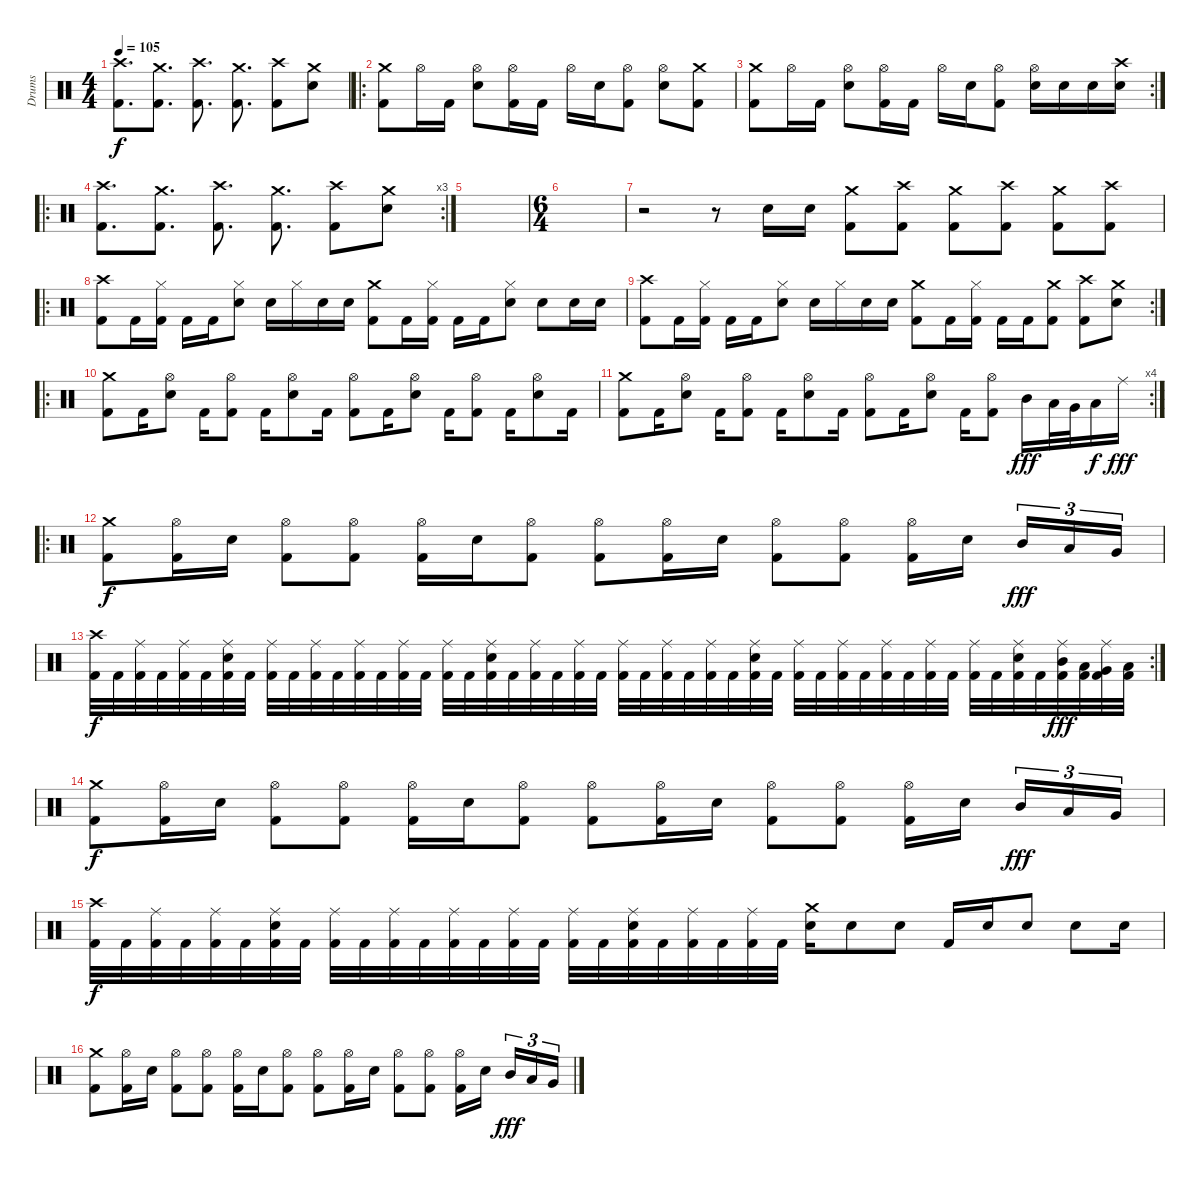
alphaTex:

\track ("Drums" "Drums") {instrument percussion}
\staff {score}
\articulation defaults
\ts (4 4)
\tempo 105
\clef neutral
\ks c
("Crash high (hit)" "Kick (hit) 2").8{d dy f} ("Crash medium (hit)" "Kick (hit) 2").8{d} ("Crash high (hit)" "Kick (hit) 2").8{d} ("Crash medium (hit)" "Kick (hit) 2").8{d} ("Crash high (hit)" "Kick (hit) 2").8 ("Crash medium (hit)" "Electric Snare (hit)").8 |
\ro
("Crash medium (hit)" "Kick (hit) 2").8 "Hi-Hat (open)".16 "Kick (hit) 2".16 ("Hi-Hat (open)" "Electric Snare (hit)").8 ("Hi-Hat (open)" "Kick (hit) 2").16 "Kick (hit) 2".16 "Hi-Hat (open)".16 "Electric Snare (hit)".16 ("Hi-Hat (open)" "Kick (hit) 2").8 ("Hi-Hat (open)" "Electric Snare (hit)").8 ("Crash medium (hit)" "Kick (hit) 2").8 |
\rc 2
("Crash medium (hit)" "Kick (hit) 2").8 "Hi-Hat (open)".16 "Kick (hit) 2".16 ("Hi-Hat (open)" "Electric Snare (hit)").8 ("Hi-Hat (open)" "Kick (hit) 2").16 "Kick (hit) 2".16 "Hi-Hat (open)".16 "Electric Snare (hit)".16 ("Hi-Hat (open)" "Kick (hit) 2").8 ("Hi-Hat (open)" "Electric Snare (hit)").16 "Electric Snare (hit)".16 "Electric Snare (hit)".16 ("Crash high (hit)" "Electric Snare (hit)").16 |
\ro
\rc 3
("Crash high (hit)" "Kick (hit) 2").8{d} ("Crash medium (hit)" "Kick (hit) 2").8{d} ("Crash high (hit)" "Kick (hit) 2").8{d} ("Crash medium (hit)" "Kick (hit) 2").8{d} ("Crash high (hit)" "Kick (hit) 2").8 ("Crash medium (hit)" "Electric Snare (hit)").8 |
|
\ts (6 4)
|
r.2 r.8 "Electric Snare (hit)".16 "Electric Snare (hit)".16 ("Crash medium (hit)" "Kick (hit) 2").8 ("Crash high (hit)" "Kick (hit) 2").8 ("Crash medium (hit)" "Kick (hit) 2").8 ("Crash high (hit)" "Kick (hit) 2").8 ("Crash medium (hit)" "Kick (hit) 2").8 ("Crash high (hit)" "Kick (hit) 2").8 |
\ro
("Crash high (hit)" "Kick (hit) 2").8 "Kick (hit) 2".16 ("Hi-Hat (closed)" "Kick (hit) 2").16 "Kick (hit) 2".16 "Kick (hit) 2".16 ("Hi-Hat (closed)" "Electric Snare (hit)").8 "Electric Snare (hit)".16 "Hi-Hat (closed)".16 "Electric Snare (hit)".16 "Electric Snare (hit)".16 ("Crash medium (hit)" "Kick (hit) 2").8 "Kick (hit) 2".16 ("Hi-Hat (closed)" "Kick (hit) 2").16 "Kick (hit) 2".16 "Kick (hit) 2".16 ("Hi-Hat (closed)" "Electric Snare (hit)").8 "Electric Snare (hit)".8 "Electric Snare (hit)".16 "Electric Snare (hit)".16 |
\rc 2
("Crash high (hit)" "Kick (hit) 2").8 "Kick (hit) 2".16 ("Hi-Hat (closed)" "Kick (hit) 2").16 "Kick (hit) 2".16 "Kick (hit) 2".16 ("Hi-Hat (closed)" "Electric Snare (hit)").8 "Electric Snare (hit)".16 "Hi-Hat (closed)".16 "Electric Snare (hit)".16 "Electric Snare (hit)".16 ("Crash medium (hit)" "Kick (hit) 2").8 "Kick (hit) 2".16 ("Hi-Hat (closed)" "Kick (hit) 2").16 "Kick (hit) 2".16 "Kick (hit) 2".16 ("Crash medium (hit)" "Kick (hit) 2").8 ("Crash high (hit)" "Kick (hit) 2").8 ("Crash medium (hit)" "Electric Snare (hit)").8 |
\ro
("Crash medium (hit)" "Kick (hit) 2").8 "Kick (hit) 2".16 ("Hi-Hat (open)" "Electric Snare (hit)").8 "Kick (hit) 2".16 ("Hi-Hat (open)" "Kick (hit) 2").8 "Kick (hit) 2".16 ("Hi-Hat (open)" "Electric Snare (hit)").8 "Kick (hit) 2".16 ("Hi-Hat (open)" "Kick (hit) 2").8 "Kick (hit) 2".16 ("Hi-Hat (open)" "Electric Snare (hit)").8 "Kick (hit) 2".16 ("Hi-Hat (open)" "Kick (hit) 2").8 "Kick (hit) 2".16 ("Hi-Hat (open)" "Electric Snare (hit)").8 "Kick (hit) 2".16 |
\rc 4
("Crash medium (hit)" "Kick (hit) 2").8 "Kick (hit) 2".16 ("Hi-Hat (open)" "Electric Snare (hit)").8 "Kick (hit) 2".16 ("Hi-Hat (open)" "Kick (hit) 2").8 "Kick (hit) 2".16 ("Hi-Hat (open)" "Electric Snare (hit)").8 "Kick (hit) 2".16 ("Hi-Hat (open)" "Kick (hit) 2").8 "Kick (hit) 2".16 ("Hi-Hat (open)" "Electric Snare (hit)").8 "Kick (hit) 2".16 ("Hi-Hat (open)" "Kick (hit) 2").8 "Mid Tom (hit)".16{dy fff} "Low Tom (hit)".32 "Very Low Tom (hit)".32 "Low Floor Tom (hit)".16{dy f} "Ride (middle)".16{dy fff} |
\ro
("Crash medium (hit)" "Kick (hit) 2").8{dy f} ("Hi-Hat (open)" "Kick (hit) 2").16 "Electric Snare (hit)".16 ("Hi-Hat (open)" "Kick (hit) 2").8 ("Hi-Hat (open)" "Kick (hit) 2").8 ("Hi-Hat (open)" "Kick (hit) 2").16 "Electric Snare (hit)".16 ("Hi-Hat (open)" "Kick (hit) 2").8 ("Hi-Hat (open)" "Kick (hit) 2").8 ("Hi-Hat (open)" "Kick (hit) 2").16 "Electric Snare (hit)".16 ("Hi-Hat (open)" "Kick (hit) 2").8 ("Hi-Hat (open)" "Kick (hit) 2").8 ("Hi-Hat (open)" "Kick (hit) 2").16 "Electric Snare (hit)".16{beam splitsecondary} "Mid Tom (hit)".16{tu (3 2) dy fff} "Low Tom (hit)".16{tu (3 2)} "Very Low Tom (hit)".16{tu (3 2)} |
\rc 2
("Crash high (hit)" "Kick (hit) 2").32{dy f} "Kick (hit) 2".32 ("Ride (middle)" "Kick (hit) 2").32 "Kick (hit) 2".32 ("Ride (middle)" "Kick (hit) 2").32 "Kick (hit) 2".32 ("Ride (middle)" "Electric Snare (hit)" "Kick (hit) 2").32 "Kick (hit) 2".32 ("Ride (middle)" "Kick (hit) 2").32 "Kick (hit) 2".32 ("Ride (middle)" "Kick (hit) 2").32 "Kick (hit) 2".32 ("Ride (middle)" "Kick (hit) 2").32 "Kick (hit) 2".32 ("Ride (middle)" "Kick (hit) 2").32 "Kick (hit) 2".32 ("Ride (middle)" "Kick (hit) 2").32 "Kick (hit) 2".32 ("Ride (middle)" "Electric Snare (hit)" "Kick (hit) 2").32 "Kick (hit) 2".32 ("Ride (middle)" "Kick (hit) 2").32 "Kick (hit) 2".32 ("Ride (middle)" "Kick (hit) 2").32 "Kick (hit) 2".32 ("Ride (middle)" "Kick (hit) 2").32 "Kick (hit) 2".32 ("Ride (middle)" "Kick (hit) 2").32 "Kick (hit) 2".32 ("Ride (middle)" "Kick (hit) 2").32 "Kick (hit) 2".32 ("Ride (middle)" "Electric Snare (hit)" "Kick (hit) 2").32 "Kick (hit) 2".32 ("Ride (middle)" "Kick (hit) 2").32 "Kick (hit) 2".32 ("Ride (middle)" "Kick (hit) 2").32 "Kick (hit) 2".32 ("Ride (middle)" "Kick (hit) 2").32 "Kick (hit) 2".32 ("Ride (middle)" "Kick (hit) 2").32 "Kick (hit) 2".32 ("Ride (middle)" "Kick (hit) 2").32 "Kick (hit) 2".32 ("Ride (middle)" "Electric Snare (hit)" "Kick (hit) 2").32 "Kick (hit) 2".32 ("Ride (middle)" "Mid Tom (hit)" "Kick (hit) 2").32{dy fff} ("Low Tom (hit)" "Kick (hit) 2").32 ("Ride (middle)" "Very Low Tom (hit)" "Kick (hit) 2").32 ("Low Floor Tom (hit)" "Kick (hit) 2").32 |
("Crash medium (hit)" "Kick (hit) 2").8{dy f} ("Hi-Hat (open)" "Kick (hit) 2").16 "Electric Snare (hit)".16 ("Hi-Hat (open)" "Kick (hit) 2").8 ("Hi-Hat (open)" "Kick (hit) 2").8 ("Hi-Hat (open)" "Kick (hit) 2").16 "Electric Snare (hit)".16 ("Hi-Hat (open)" "Kick (hit) 2").8 ("Hi-Hat (open)" "Kick (hit) 2").8 ("Hi-Hat (open)" "Kick (hit) 2").16 "Electric Snare (hit)".16 ("Hi-Hat (open)" "Kick (hit) 2").8 ("Hi-Hat (open)" "Kick (hit) 2").8 ("Hi-Hat (open)" "Kick (hit) 2").16 "Electric Snare (hit)".16{beam splitsecondary} "Mid Tom (hit)".16{tu (3 2) dy fff} "Low Tom (hit)".16{tu (3 2)} "Very Low Tom (hit)".16{tu (3 2)} |
("Crash high (hit)" "Kick (hit) 2").32{dy f} "Kick (hit) 2".32 ("Ride (middle)" "Kick (hit) 2").32 "Kick (hit) 2".32 ("Ride (middle)" "Kick (hit) 2").32 "Kick (hit) 2".32 ("Ride (middle)" "Electric Snare (hit)" "Kick (hit) 2").32 "Kick (hit) 2".32 ("Ride (middle)" "Kick (hit) 2").32 "Kick (hit) 2".32 ("Ride (middle)" "Kick (hit) 2").32 "Kick (hit) 2".32 ("Ride (middle)" "Kick (hit) 2").32 "Kick (hit) 2".32 ("Ride (middle)" "Kick (hit) 2").32 "Kick (hit) 2".32 ("Ride (middle)" "Kick (hit) 2").32 "Kick (hit) 2".32 ("Ride (middle)" "Electric Snare (hit)" "Kick (hit) 2").32 "Kick (hit) 2".32 ("Ride (middle)" "Kick (hit) 2").32 "Kick (hit) 2".32 ("Ride (middle)" "Kick (hit) 2").32 "Kick (hit) 2".32 ("Crash medium (hit)" "Electric Snare (hit)").16 "Electric Snare (hit)".8 "Electric Snare (hit)".8 "Kick (hit) 2".16 "Electric Snare (hit)".16 "Electric Snare (hit)".8 "Electric Snare (hit)".8 "Electric Snare (hit)".16 |
("Crash medium (hit)" "Kick (hit) 2").8 ("Hi-Hat (open)" "Kick (hit) 2").16 "Electric Snare (hit)".16 ("Hi-Hat (open)" "Kick (hit) 2").8 ("Hi-Hat (open)" "Kick (hit) 2").8 ("Hi-Hat (open)" "Kick (hit) 2").16 "Electric Snare (hit)".16 ("Hi-Hat (open)" "Kick (hit) 2").8 ("Hi-Hat (open)" "Kick (hit) 2").8 ("Hi-Hat (open)" "Kick (hit) 2").16 "Electric Snare (hit)".16 ("Hi-Hat (open)" "Kick (hit) 2").8 ("Hi-Hat (open)" "Kick (hit) 2").8 ("Hi-Hat (open)" "Kick (hit) 2").16 "Electric Snare (hit)".16{beam splitsecondary} "Mid Tom (hit)".16{tu (3 2) dy fff} "Low Tom (hit)".16{tu (3 2)} "Very Low Tom (hit)".16{tu (3 2)}
